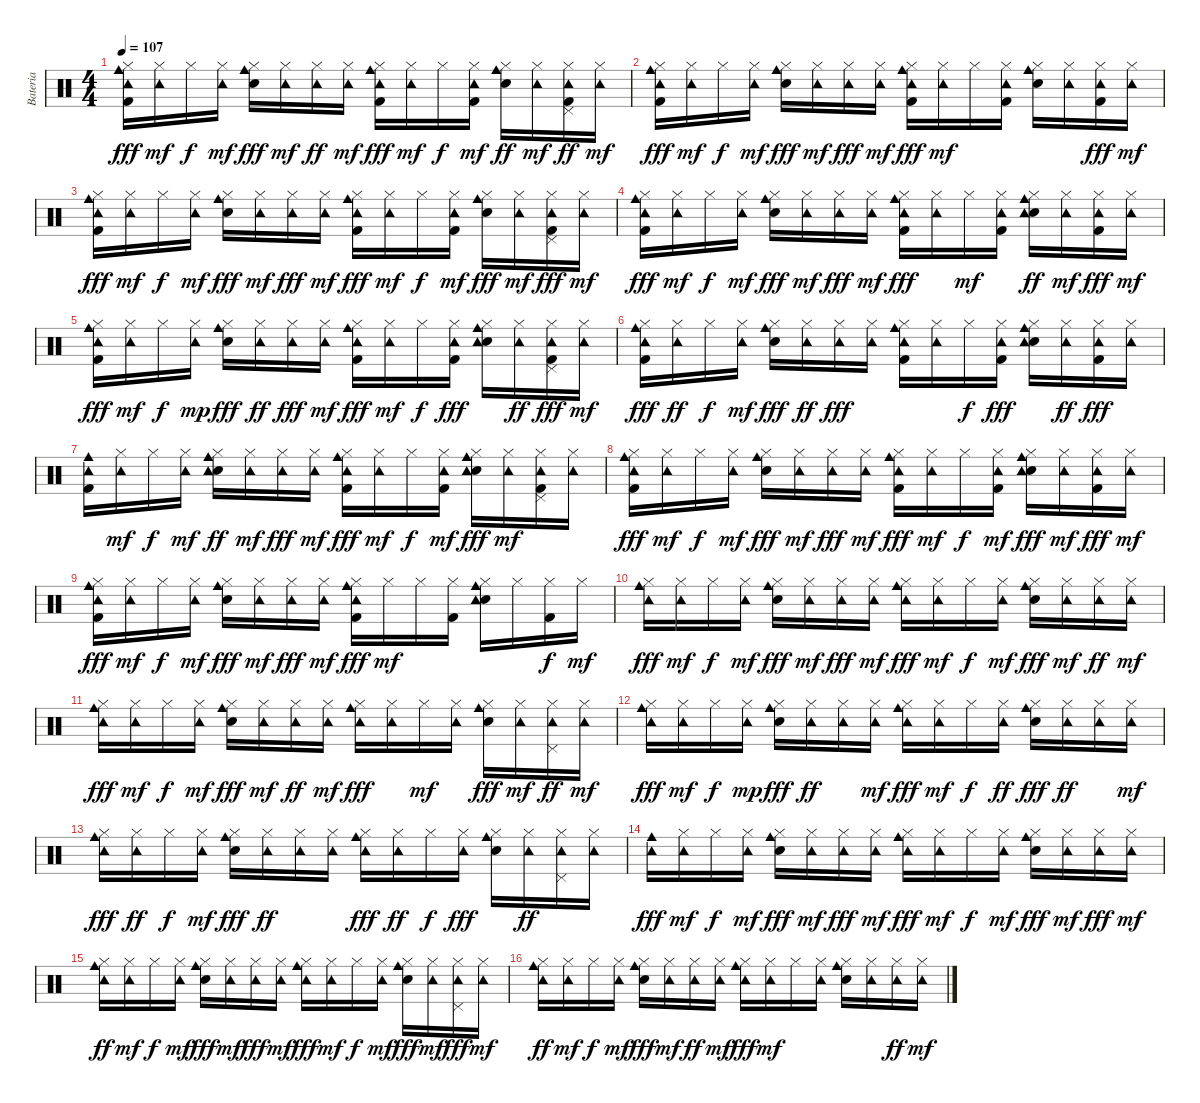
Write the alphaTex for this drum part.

\track ("Bateria" "Bateria") {instrument percussion}
\staff {score}
\articulation defaults
\ts (4 4)
\tempo 107
\clef neutral
\ks c
("Cowbell medium (hit)" "Kick (hit) 2" "Tambourine (hit)" "Hi-Hat (closed)").16{dy fff} ("Tambourine (hit)" "Hi-Hat (closed)").16{dy mf} "Hi-Hat (closed)".16{dy f} ("Tambourine (hit)" "Hi-Hat (closed)").16{dy mf} ("Cowbell medium (hit)" "Snare (hit) 2" "Hi-Hat (closed)").16{dy fff} ("Tambourine (hit)" "Hi-Hat (closed)").16{dy mf} ("Tambourine (hit)" "Hi-Hat (closed)").16{dy ff} ("Tambourine (hit)" "Hi-Hat (closed)").16{dy mf} ("Cowbell medium (hit)" "Kick (hit) 2" "Tambourine (hit)" "Hi-Hat (closed)").16{dy fff} ("Tambourine (hit)" "Hi-Hat (closed)").16{dy mf} "Hi-Hat (closed)".16{dy f} ("Kick (hit) 2" "Tambourine (hit)" "Hi-Hat (closed)").16{dy mf} ("Cowbell medium (hit)" "Snare (hit) 2" "Hi-Hat (closed)").16{dy ff} ("Tambourine (hit)" "Hi-Hat (closed)").16{dy mf} ("Kick (hit) 2" "Tambourine (hit)" "Pedal Hi-Hat (hit)" "Hi-Hat (closed)").16{dy ff} ("Tambourine (hit)" "Hi-Hat (closed)").16{dy mf} |
("Cowbell medium (hit)" "Kick (hit) 2" "Tambourine (hit)" "Hi-Hat (closed)").16{dy fff} ("Tambourine (hit)" "Hi-Hat (closed)").16{dy mf} "Hi-Hat (closed)".16{dy f} ("Tambourine (hit)" "Hi-Hat (closed)").16{dy mf} ("Cowbell medium (hit)" "Snare (hit) 2" "Hi-Hat (closed)").16{dy fff} ("Tambourine (hit)" "Hi-Hat (closed)").16{dy mf} ("Tambourine (hit)" "Hi-Hat (closed)").16{dy fff} ("Tambourine (hit)" "Hi-Hat (closed)").16{dy mf} ("Cowbell medium (hit)" "Kick (hit) 2" "Tambourine (hit)" "Hi-Hat (closed)").16{dy fff} ("Tambourine (hit)" "Hi-Hat (closed)").16{dy mf} "Hi-Hat (closed)".16 ("Kick (hit) 2" "Tambourine (hit)" "Hi-Hat (closed)").16 ("Cowbell medium (hit)" "Snare (hit) 2" "Hi-Hat (closed)").16 ("Tambourine (hit)" "Hi-Hat (closed)").16 ("Kick (hit) 2" "Tambourine (hit)" "Hi-Hat (closed)").16{dy fff} ("Tambourine (hit)" "Hi-Hat (closed)").16{dy mf} |
("Cowbell medium (hit)" "Kick (hit) 2" "Tambourine (hit)" "Hi-Hat (closed)").16{dy fff} ("Tambourine (hit)" "Hi-Hat (closed)").16{dy mf} "Hi-Hat (closed)".16{dy f} ("Tambourine (hit)" "Hi-Hat (closed)").16{dy mf} ("Cowbell medium (hit)" "Snare (hit) 2" "Hi-Hat (closed)").16{dy fff} ("Tambourine (hit)" "Hi-Hat (closed)").16{dy mf} ("Tambourine (hit)" "Hi-Hat (closed)").16{dy fff} ("Tambourine (hit)" "Hi-Hat (closed)").16{dy mf} ("Cowbell medium (hit)" "Kick (hit) 2" "Tambourine (hit)" "Hi-Hat (closed)").16{dy fff} ("Tambourine (hit)" "Hi-Hat (closed)").16{dy mf} "Hi-Hat (closed)".16{dy f} ("Kick (hit) 2" "Tambourine (hit)" "Hi-Hat (closed)").16{dy mf} ("Cowbell medium (hit)" "Snare (hit) 2" "Hi-Hat (closed)").16{dy fff} ("Tambourine (hit)" "Hi-Hat (closed)").16{dy mf} ("Kick (hit) 2" "Tambourine (hit)" "Pedal Hi-Hat (hit)" "Hi-Hat (closed)").16{dy fff} ("Tambourine (hit)" "Hi-Hat (closed)").16{dy mf} |
("Cowbell medium (hit)" "Kick (hit) 2" "Tambourine (hit)" "Hi-Hat (closed)").16{dy fff} ("Tambourine (hit)" "Hi-Hat (closed)").16{dy mf} "Hi-Hat (closed)".16{dy f} ("Tambourine (hit)" "Hi-Hat (closed)").16{dy mf} ("Cowbell medium (hit)" "Snare (hit) 2" "Hi-Hat (closed)").16{dy fff} ("Tambourine (hit)" "Hi-Hat (closed)").16{dy mf} ("Tambourine (hit)" "Hi-Hat (closed)").16{dy fff} ("Tambourine (hit)" "Hi-Hat (closed)").16{dy mf} ("Cowbell medium (hit)" "Kick (hit) 2" "Tambourine (hit)" "Hi-Hat (closed)").16{dy fff} ("Tambourine (hit)" "Hi-Hat (closed)").16 "Hi-Hat (closed)".16{dy mf} ("Kick (hit) 2" "Tambourine (hit)" "Hi-Hat (closed)").16 ("Cowbell medium (hit)" "Snare (hit) 2" "Tambourine (hit)" "Hi-Hat (closed)").16{dy ff} ("Tambourine (hit)" "Hi-Hat (closed)").16{dy mf} ("Kick (hit) 2" "Tambourine (hit)" "Hi-Hat (closed)").16{dy fff} ("Tambourine (hit)" "Hi-Hat (closed)").16{dy mf} |
("Cowbell medium (hit)" "Kick (hit) 2" "Tambourine (hit)" "Hi-Hat (closed)").16{dy fff} ("Tambourine (hit)" "Hi-Hat (closed)").16{dy mf} "Hi-Hat (closed)".16{dy f} ("Tambourine (hit)" "Hi-Hat (closed)").16{dy mp} ("Cowbell medium (hit)" "Snare (hit) 2" "Hi-Hat (closed)").16{dy fff} ("Tambourine (hit)" "Hi-Hat (closed)").16{dy ff} ("Tambourine (hit)" "Hi-Hat (closed)").16{dy fff} ("Tambourine (hit)" "Hi-Hat (closed)").16{dy mf} ("Cowbell medium (hit)" "Kick (hit) 2" "Tambourine (hit)" "Hi-Hat (closed)").16{dy fff} ("Tambourine (hit)" "Hi-Hat (closed)").16{dy mf} "Hi-Hat (closed)".16{dy f} ("Kick (hit) 2" "Tambourine (hit)" "Hi-Hat (closed)").16{dy fff} ("Cowbell medium (hit)" "Snare (hit) 2" "Tambourine (hit)" "Hi-Hat (closed)").16 ("Tambourine (hit)" "Hi-Hat (closed)").16{dy ff} ("Kick (hit) 2" "Tambourine (hit)" "Pedal Hi-Hat (hit)" "Hi-Hat (closed)").16{dy fff} ("Tambourine (hit)" "Hi-Hat (closed)").16{dy mf} |
("Cowbell medium (hit)" "Kick (hit) 2" "Tambourine (hit)" "Hi-Hat (closed)").16{dy fff} ("Tambourine (hit)" "Hi-Hat (closed)").16{dy ff} "Hi-Hat (closed)".16{dy f} ("Tambourine (hit)" "Hi-Hat (closed)").16{dy mf} ("Cowbell medium (hit)" "Snare (hit) 2" "Hi-Hat (closed)").16{dy fff} ("Tambourine (hit)" "Hi-Hat (closed)").16{dy ff} ("Tambourine (hit)" "Hi-Hat (closed)").16{dy fff} ("Tambourine (hit)" "Hi-Hat (closed)").16 ("Cowbell medium (hit)" "Kick (hit) 2" "Tambourine (hit)" "Hi-Hat (closed)").16 ("Tambourine (hit)" "Hi-Hat (closed)").16 "Hi-Hat (closed)".16{dy f} ("Kick (hit) 2" "Tambourine (hit)" "Hi-Hat (closed)").16{dy fff} ("Cowbell medium (hit)" "Snare (hit) 2" "Tambourine (hit)" "Hi-Hat (closed)").16 ("Tambourine (hit)" "Hi-Hat (closed)").16{dy ff} ("Kick (hit) 2" "Tambourine (hit)" "Hi-Hat (closed)").16{dy fff} ("Tambourine (hit)" "Hi-Hat (closed)").16 |
("Cowbell medium (hit)" "Kick (hit) 2" "Tambourine (hit)").16 ("Tambourine (hit)" "Hi-Hat (closed)").16{dy mf} "Hi-Hat (closed)".16{dy f} ("Tambourine (hit)" "Hi-Hat (closed)").16{dy mf} ("Cowbell medium (hit)" "Snare (hit) 2" "Tambourine (hit)" "Hi-Hat (closed)").16{dy ff} ("Tambourine (hit)" "Hi-Hat (closed)").16{dy mf} ("Tambourine (hit)" "Hi-Hat (closed)").16{dy fff} ("Tambourine (hit)" "Hi-Hat (closed)").16{dy mf} ("Cowbell medium (hit)" "Kick (hit) 2" "Tambourine (hit)" "Hi-Hat (closed)").16{dy fff} ("Tambourine (hit)" "Hi-Hat (closed)").16{dy mf} "Hi-Hat (closed)".16{dy f} ("Kick (hit) 2" "Tambourine (hit)" "Hi-Hat (closed)").16{dy mf} ("Cowbell medium (hit)" "Snare (hit) 2" "Tambourine (hit)" "Hi-Hat (closed)").16{dy fff} ("Tambourine (hit)" "Hi-Hat (closed)").16{dy mf} ("Kick (hit) 2" "Tambourine (hit)" "Pedal Hi-Hat (hit)" "Hi-Hat (closed)").16 ("Tambourine (hit)" "Hi-Hat (closed)").16 |
("Cowbell medium (hit)" "Kick (hit) 2" "Tambourine (hit)" "Hi-Hat (closed)").16{dy fff} ("Tambourine (hit)" "Hi-Hat (closed)").16{dy mf} "Hi-Hat (closed)".16{dy f} ("Tambourine (hit)" "Hi-Hat (closed)").16{dy mf} ("Cowbell medium (hit)" "Snare (hit) 2" "Hi-Hat (closed)").16{dy fff} ("Tambourine (hit)" "Hi-Hat (closed)").16{dy mf} ("Tambourine (hit)" "Hi-Hat (closed)").16{dy fff} ("Tambourine (hit)" "Hi-Hat (closed)").16{dy mf} ("Cowbell medium (hit)" "Kick (hit) 2" "Tambourine (hit)" "Hi-Hat (closed)").16{dy fff} ("Tambourine (hit)" "Hi-Hat (closed)").16{dy mf} "Hi-Hat (closed)".16{dy f} ("Kick (hit) 2" "Tambourine (hit)" "Hi-Hat (closed)").16{dy mf} ("Cowbell medium (hit)" "Snare (hit) 2" "Tambourine (hit)" "Hi-Hat (closed)").16{dy fff} ("Tambourine (hit)" "Hi-Hat (closed)").16{dy mf} ("Kick (hit) 2" "Tambourine (hit)" "Hi-Hat (closed)").16{dy fff} ("Tambourine (hit)" "Hi-Hat (closed)").16{dy mf} |
("Cowbell medium (hit)" "Kick (hit) 2" "Tambourine (hit)" "Hi-Hat (closed)").16{dy fff} ("Tambourine (hit)" "Hi-Hat (closed)").16{dy mf} "Hi-Hat (closed)".16{dy f} ("Tambourine (hit)" "Hi-Hat (closed)").16{dy mf} ("Cowbell medium (hit)" "Snare (hit) 2" "Hi-Hat (closed)").16{dy fff} ("Tambourine (hit)" "Hi-Hat (closed)").16{dy mf} ("Tambourine (hit)" "Hi-Hat (closed)").16{dy fff} ("Tambourine (hit)" "Hi-Hat (closed)").16{dy mf} ("Cowbell medium (hit)" "Kick (hit) 2" "Tambourine (hit)" "Hi-Hat (closed)").16{dy fff} "Hi-Hat (closed)".16{dy mf} "Hi-Hat (closed)".16 ("Kick (hit) 2" "Hi-Hat (closed)").16 ("Cowbell medium (hit)" "Snare (hit) 2" "Tambourine (hit)" "Hi-Hat (closed)").16 "Hi-Hat (closed)".16 ("Kick (hit) 2" "Hi-Hat (closed)").16{dy f} "Hi-Hat (closed)".16{dy mf} |
("Cowbell medium (hit)" "Tambourine (hit)" "Hi-Hat (closed)").16{dy fff} ("Tambourine (hit)" "Hi-Hat (closed)").16{dy mf} "Hi-Hat (closed)".16{dy f} ("Tambourine (hit)" "Hi-Hat (closed)").16{dy mf} ("Hand Clap (hit)" "Cowbell medium (hit)" "Hi-Hat (closed)").16{dy fff} ("Tambourine (hit)" "Hi-Hat (closed)").16{dy mf} ("Tambourine (hit)" "Hi-Hat (closed)").16{dy fff} ("Tambourine (hit)" "Hi-Hat (closed)").16{dy mf} ("Cowbell medium (hit)" "Tambourine (hit)" "Hi-Hat (closed)").16{dy fff} ("Tambourine (hit)" "Hi-Hat (closed)").16{dy mf} "Hi-Hat (closed)".16{dy f} ("Tambourine (hit)" "Hi-Hat (closed)").16{dy mf} ("Hand Clap (hit)" "Cowbell medium (hit)" "Hi-Hat (closed)").16{dy fff} ("Tambourine (hit)" "Hi-Hat (closed)").16{dy mf} ("Tambourine (hit)" "Hi-Hat (closed)").16{dy ff} ("Tambourine (hit)" "Hi-Hat (closed)").16{dy mf} |
("Cowbell medium (hit)" "Tambourine (hit)" "Hi-Hat (closed)").16{dy fff} ("Tambourine (hit)" "Hi-Hat (closed)").16{dy mf} "Hi-Hat (closed)".16{dy f} ("Tambourine (hit)" "Hi-Hat (closed)").16{dy mf} ("Hand Clap (hit)" "Cowbell medium (hit)" "Hi-Hat (closed)").16{dy fff} ("Tambourine (hit)" "Hi-Hat (closed)").16{dy mf} ("Tambourine (hit)" "Hi-Hat (closed)").16{dy ff} ("Tambourine (hit)" "Hi-Hat (closed)").16{dy mf} ("Cowbell medium (hit)" "Tambourine (hit)" "Hi-Hat (closed)").16{dy fff} ("Tambourine (hit)" "Hi-Hat (closed)").16 "Hi-Hat (closed)".16{dy mf} ("Tambourine (hit)" "Hi-Hat (closed)").16 ("Hand Clap (hit)" "Cowbell medium (hit)" "Hi-Hat (closed)").16{dy fff} ("Tambourine (hit)" "Hi-Hat (closed)").16{dy mf} ("Tambourine (hit)" "Pedal Hi-Hat (hit)" "Hi-Hat (closed)").16{dy ff} ("Tambourine (hit)" "Hi-Hat (closed)").16{dy mf} |
("Cowbell medium (hit)" "Tambourine (hit)" "Hi-Hat (closed)").16{dy fff} ("Tambourine (hit)" "Hi-Hat (closed)").16{dy mf} "Hi-Hat (closed)".16{dy f} ("Tambourine (hit)" "Hi-Hat (closed)").16{dy mp} ("Hand Clap (hit)" "Cowbell medium (hit)" "Hi-Hat (closed)").16{dy fff} ("Tambourine (hit)" "Hi-Hat (closed)").16{dy ff} ("Tambourine (hit)" "Hi-Hat (closed)").16 ("Tambourine (hit)" "Hi-Hat (closed)").16{dy mf} ("Cowbell medium (hit)" "Tambourine (hit)" "Hi-Hat (closed)").16{dy fff} ("Tambourine (hit)" "Hi-Hat (closed)").16{dy mf} "Hi-Hat (closed)".16{dy f} ("Tambourine (hit)" "Hi-Hat (closed)").16{dy ff} ("Hand Clap (hit)" "Cowbell medium (hit)" "Hi-Hat (closed)").16{dy fff} ("Tambourine (hit)" "Hi-Hat (closed)").16{dy ff} ("Tambourine (hit)" "Hi-Hat (closed)").16 ("Tambourine (hit)" "Hi-Hat (closed)").16{dy mf} |
("Cowbell medium (hit)" "Tambourine (hit)" "Hi-Hat (closed)").16{dy fff} ("Tambourine (hit)" "Hi-Hat (closed)").16{dy ff} "Hi-Hat (closed)".16{dy f} ("Tambourine (hit)" "Hi-Hat (closed)").16{dy mf} ("Hand Clap (hit)" "Cowbell medium (hit)" "Hi-Hat (closed)").16{dy fff} ("Tambourine (hit)" "Hi-Hat (closed)").16{dy ff} ("Tambourine (hit)" "Hi-Hat (closed)").16 ("Tambourine (hit)" "Hi-Hat (closed)").16 ("Cowbell medium (hit)" "Tambourine (hit)" "Hi-Hat (closed)").16{dy fff} ("Tambourine (hit)" "Hi-Hat (closed)").16{dy ff} "Hi-Hat (closed)".16{dy f} ("Tambourine (hit)" "Hi-Hat (closed)").16{dy fff} ("Hand Clap (hit)" "Cowbell medium (hit)" "Hi-Hat (closed)").16 ("Tambourine (hit)" "Hi-Hat (closed)").16{dy ff} ("Tambourine (hit)" "Pedal Hi-Hat (hit)" "Hi-Hat (closed)").16 ("Tambourine (hit)" "Hi-Hat (closed)").16 |
("Cowbell medium (hit)" "Tambourine (hit)").16{dy fff} ("Tambourine (hit)" "Hi-Hat (closed)").16{dy mf} "Hi-Hat (closed)".16{dy f} ("Tambourine (hit)" "Hi-Hat (closed)").16{dy mf} ("Hand Clap (hit)" "Cowbell medium (hit)" "Hi-Hat (closed)").16{dy fff} ("Tambourine (hit)" "Hi-Hat (closed)").16{dy mf} ("Tambourine (hit)" "Hi-Hat (closed)").16{dy fff} ("Tambourine (hit)" "Hi-Hat (closed)").16{dy mf} ("Cowbell medium (hit)" "Tambourine (hit)" "Hi-Hat (closed)").16{dy fff} ("Tambourine (hit)" "Hi-Hat (closed)").16{dy mf} "Hi-Hat (closed)".16{dy f} ("Tambourine (hit)" "Hi-Hat (closed)").16{dy mf} ("Hand Clap (hit)" "Cowbell medium (hit)" "Hi-Hat (closed)").16{dy fff} ("Tambourine (hit)" "Hi-Hat (closed)").16{dy mf} ("Tambourine (hit)" "Hi-Hat (closed)").16{dy fff} ("Tambourine (hit)" "Hi-Hat (closed)").16{dy mf} |
("Cowbell medium (hit)" "Tambourine (hit)" "Hi-Hat (closed)").16{dy ff} ("Tambourine (hit)" "Hi-Hat (closed)").16{dy mf} "Hi-Hat (closed)".16{dy f} ("Tambourine (hit)" "Hi-Hat (closed)").16{dy mf} ("Hand Clap (hit)" "Cowbell medium (hit)" "Hi-Hat (closed)").16{dy fff} ("Tambourine (hit)" "Hi-Hat (closed)").16{dy mf} ("Tambourine (hit)" "Hi-Hat (closed)").16{dy fff} ("Tambourine (hit)" "Hi-Hat (closed)").16{dy mf} ("Cowbell medium (hit)" "Tambourine (hit)" "Hi-Hat (closed)").16{dy fff} ("Tambourine (hit)" "Hi-Hat (closed)").16{dy mf} "Hi-Hat (closed)".16{dy f} ("Tambourine (hit)" "Hi-Hat (closed)").16{dy mf} ("Hand Clap (hit)" "Cowbell medium (hit)" "Hi-Hat (closed)").16{dy fff} ("Tambourine (hit)" "Hi-Hat (closed)").16{dy mf} ("Tambourine (hit)" "Pedal Hi-Hat (hit)" "Hi-Hat (closed)").16{dy fff} ("Tambourine (hit)" "Hi-Hat (closed)").16{dy mf} |
("Cowbell medium (hit)" "Tambourine (hit)" "Hi-Hat (closed)").16{dy ff} ("Tambourine (hit)" "Hi-Hat (closed)").16{dy mf} "Hi-Hat (closed)".16{dy f} ("Tambourine (hit)" "Hi-Hat (closed)").16{dy mf} ("Hand Clap (hit)" "Cowbell medium (hit)" "Hi-Hat (closed)").16{dy fff} ("Tambourine (hit)" "Hi-Hat (closed)").16{dy mf} ("Tambourine (hit)" "Hi-Hat (closed)").16{dy ff} ("Tambourine (hit)" "Hi-Hat (closed)").16{dy mf} ("Cowbell medium (hit)" "Tambourine (hit)" "Hi-Hat (closed)").16{dy fff} ("Tambourine (hit)" "Hi-Hat (closed)").16{dy mf} "Hi-Hat (closed)".16 ("Tambourine (hit)" "Hi-Hat (closed)").16 ("Hand Clap (hit)" "Cowbell medium (hit)" "Hi-Hat (closed)").16 ("Tambourine (hit)" "Hi-Hat (closed)").16 ("Tambourine (hit)" "Hi-Hat (closed)").16{dy ff} ("Tambourine (hit)" "Hi-Hat (closed)").16{dy mf}
